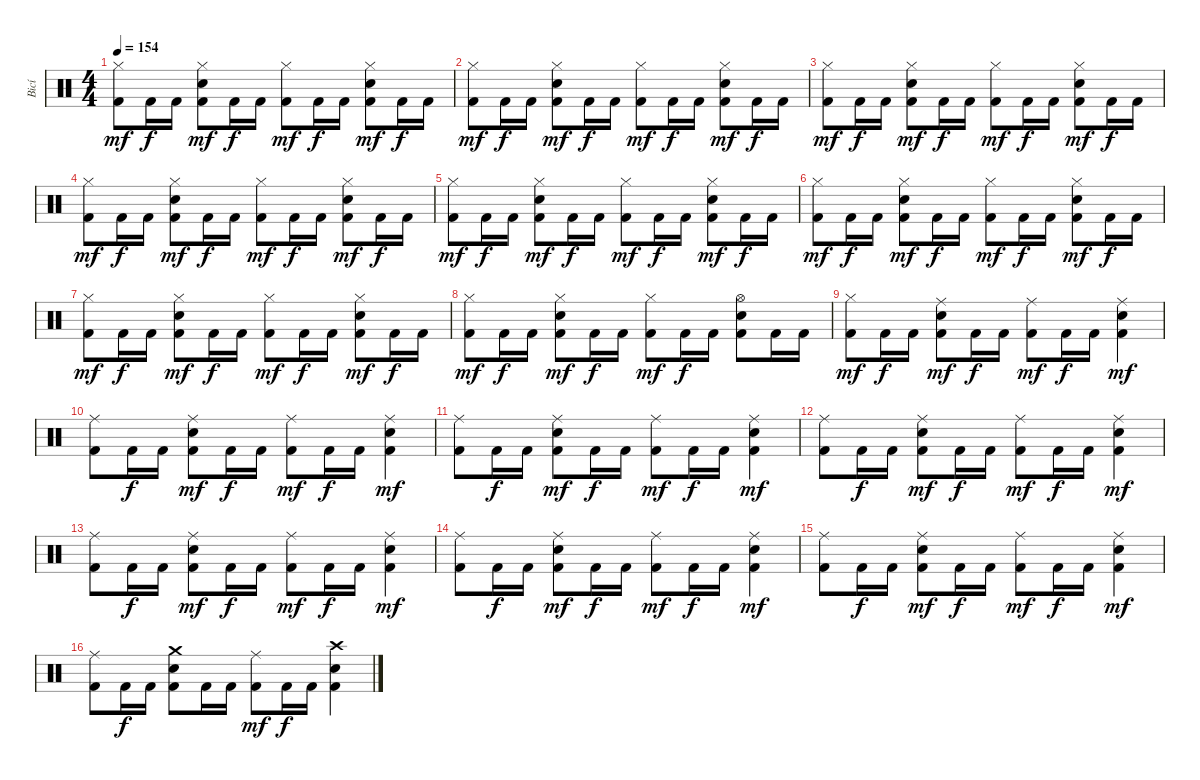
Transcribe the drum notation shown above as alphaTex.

\track ("Bicí" "Bicí") {instrument percussion}
\staff {score}
\articulation defaults
\ts (4 4)
\tempo 154
\clef neutral
\ks c
("Hi-Hat (closed)" "Kick (hit) 2").8{dy mf} "Kick (hit) 2".16{dy f} "Kick (hit) 2".16 ("Hi-Hat (closed)" "Kick (hit) 2" "Electric Snare (hit)").8{dy mf} "Kick (hit) 2".16{dy f} "Kick (hit) 2".16 ("Hi-Hat (closed)" "Kick (hit) 2").8{dy mf} "Kick (hit) 2".16{dy f} "Kick (hit) 2".16 ("Hi-Hat (closed)" "Kick (hit) 2" "Electric Snare (hit)").8{dy mf} "Kick (hit) 2".16{dy f} "Kick (hit) 2".16 |
("Hi-Hat (closed)" "Kick (hit) 2").8{dy mf} "Kick (hit) 2".16{dy f} "Kick (hit) 2".16 ("Hi-Hat (closed)" "Kick (hit) 2" "Electric Snare (hit)").8{dy mf} "Kick (hit) 2".16{dy f} "Kick (hit) 2".16 ("Hi-Hat (closed)" "Kick (hit) 2").8{dy mf} "Kick (hit) 2".16{dy f} "Kick (hit) 2".16 ("Hi-Hat (closed)" "Kick (hit) 2" "Electric Snare (hit)").8{dy mf} "Kick (hit) 2".16{dy f} "Kick (hit) 2".16 |
("Hi-Hat (closed)" "Kick (hit) 2").8{dy mf} "Kick (hit) 2".16{dy f} "Kick (hit) 2".16 ("Hi-Hat (closed)" "Kick (hit) 2" "Electric Snare (hit)").8{dy mf} "Kick (hit) 2".16{dy f} "Kick (hit) 2".16 ("Hi-Hat (closed)" "Kick (hit) 2").8{dy mf} "Kick (hit) 2".16{dy f} "Kick (hit) 2".16 ("Hi-Hat (closed)" "Kick (hit) 2" "Electric Snare (hit)").8{dy mf} "Kick (hit) 2".16{dy f} "Kick (hit) 2".16 |
("Hi-Hat (closed)" "Kick (hit) 2").8{dy mf} "Kick (hit) 2".16{dy f} "Kick (hit) 2".16 ("Hi-Hat (closed)" "Kick (hit) 2" "Electric Snare (hit)").8{dy mf} "Kick (hit) 2".16{dy f} "Kick (hit) 2".16 ("Hi-Hat (closed)" "Kick (hit) 2").8{dy mf} "Kick (hit) 2".16{dy f} "Kick (hit) 2".16 ("Hi-Hat (closed)" "Kick (hit) 2" "Electric Snare (hit)").8{dy mf} "Kick (hit) 2".16{dy f} "Kick (hit) 2".16 |
("Hi-Hat (closed)" "Kick (hit) 2").8{dy mf} "Kick (hit) 2".16{dy f} "Kick (hit) 2".16 ("Hi-Hat (closed)" "Kick (hit) 2" "Electric Snare (hit)").8{dy mf} "Kick (hit) 2".16{dy f} "Kick (hit) 2".16 ("Hi-Hat (closed)" "Kick (hit) 2").8{dy mf} "Kick (hit) 2".16{dy f} "Kick (hit) 2".16 ("Hi-Hat (closed)" "Kick (hit) 2" "Electric Snare (hit)").8{dy mf} "Kick (hit) 2".16{dy f} "Kick (hit) 2".16 |
("Hi-Hat (closed)" "Kick (hit) 2").8{dy mf} "Kick (hit) 2".16{dy f} "Kick (hit) 2".16 ("Hi-Hat (closed)" "Kick (hit) 2" "Electric Snare (hit)").8{dy mf} "Kick (hit) 2".16{dy f} "Kick (hit) 2".16 ("Hi-Hat (closed)" "Kick (hit) 2").8{dy mf} "Kick (hit) 2".16{dy f} "Kick (hit) 2".16 ("Hi-Hat (closed)" "Kick (hit) 2" "Electric Snare (hit)").8{dy mf} "Kick (hit) 2".16{dy f} "Kick (hit) 2".16 |
("Hi-Hat (closed)" "Kick (hit) 2").8{dy mf} "Kick (hit) 2".16{dy f} "Kick (hit) 2".16 ("Hi-Hat (closed)" "Kick (hit) 2" "Electric Snare (hit)").8{dy mf} "Kick (hit) 2".16{dy f} "Kick (hit) 2".16 ("Hi-Hat (closed)" "Kick (hit) 2").8{dy mf} "Kick (hit) 2".16{dy f} "Kick (hit) 2".16 ("Hi-Hat (closed)" "Kick (hit) 2" "Electric Snare (hit)").8{dy mf} "Kick (hit) 2".16{dy f} "Kick (hit) 2".16 |
("Hi-Hat (closed)" "Kick (hit) 2").8{dy mf} "Kick (hit) 2".16{dy f} "Kick (hit) 2".16 ("Hi-Hat (closed)" "Kick (hit) 2" "Electric Snare (hit)").8{dy mf} "Kick (hit) 2".16{dy f} "Kick (hit) 2".16 ("Hi-Hat (closed)" "Kick (hit) 2").8{dy mf} "Kick (hit) 2".16{dy f} "Kick (hit) 2".16 ("Hi-Hat (open)" "Kick (hit) 2" "Electric Snare (hit)").8 "Kick (hit) 2".16 "Kick (hit) 2".16 |
("Hi-Hat (closed)" "Kick (hit) 2").8{dy mf} "Kick (hit) 2".16{dy f} "Kick (hit) 2".16 ("Ride (middle)" "Kick (hit) 2" "Electric Snare (hit)").8{dy mf} "Kick (hit) 2".16{dy f} "Kick (hit) 2".16 ("Ride (middle)" "Kick (hit) 2").8{dy mf} "Kick (hit) 2".16{dy f} "Kick (hit) 2".16 ("Ride (middle)" "Kick (hit) 2" "Electric Snare (hit)").4{dy mf} |
("Ride (middle)" "Kick (hit) 2").8 "Kick (hit) 2".16{dy f} "Kick (hit) 2".16 ("Ride (middle)" "Kick (hit) 2" "Electric Snare (hit)").8{dy mf} "Kick (hit) 2".16{dy f} "Kick (hit) 2".16 ("Ride (middle)" "Kick (hit) 2").8{dy mf} "Kick (hit) 2".16{dy f} "Kick (hit) 2".16 ("Ride (middle)" "Kick (hit) 2" "Electric Snare (hit)").4{dy mf} |
("Ride (middle)" "Kick (hit) 2").8 "Kick (hit) 2".16{dy f} "Kick (hit) 2".16 ("Ride (middle)" "Kick (hit) 2" "Electric Snare (hit)").8{dy mf} "Kick (hit) 2".16{dy f} "Kick (hit) 2".16 ("Ride (middle)" "Kick (hit) 2").8{dy mf} "Kick (hit) 2".16{dy f} "Kick (hit) 2".16 ("Ride (middle)" "Kick (hit) 2" "Electric Snare (hit)").4{dy mf} |
("Ride (middle)" "Kick (hit) 2").8 "Kick (hit) 2".16{dy f} "Kick (hit) 2".16 ("Ride (middle)" "Kick (hit) 2" "Electric Snare (hit)").8{dy mf} "Kick (hit) 2".16{dy f} "Kick (hit) 2".16 ("Ride (middle)" "Kick (hit) 2").8{dy mf} "Kick (hit) 2".16{dy f} "Kick (hit) 2".16 ("Ride (middle)" "Kick (hit) 2" "Electric Snare (hit)").4{dy mf} |
("Ride (middle)" "Kick (hit) 2").8 "Kick (hit) 2".16{dy f} "Kick (hit) 2".16 ("Ride (middle)" "Kick (hit) 2" "Electric Snare (hit)").8{dy mf} "Kick (hit) 2".16{dy f} "Kick (hit) 2".16 ("Ride (middle)" "Kick (hit) 2").8{dy mf} "Kick (hit) 2".16{dy f} "Kick (hit) 2".16 ("Ride (middle)" "Kick (hit) 2" "Electric Snare (hit)").4{dy mf} |
("Ride (middle)" "Kick (hit) 2").8 "Kick (hit) 2".16{dy f} "Kick (hit) 2".16 ("Ride (middle)" "Kick (hit) 2" "Electric Snare (hit)").8{dy mf} "Kick (hit) 2".16{dy f} "Kick (hit) 2".16 ("Ride (middle)" "Kick (hit) 2").8{dy mf} "Kick (hit) 2".16{dy f} "Kick (hit) 2".16 ("Ride (middle)" "Kick (hit) 2" "Electric Snare (hit)").4{dy mf} |
("Ride (middle)" "Kick (hit) 2").8 "Kick (hit) 2".16{dy f} "Kick (hit) 2".16 ("Ride (middle)" "Kick (hit) 2" "Electric Snare (hit)").8{dy mf} "Kick (hit) 2".16{dy f} "Kick (hit) 2".16 ("Ride (middle)" "Kick (hit) 2").8{dy mf} "Kick (hit) 2".16{dy f} "Kick (hit) 2".16 ("Ride (middle)" "Kick (hit) 2" "Electric Snare (hit)").4{dy mf} |
("Ride (middle)" "Kick (hit) 2").8 "Kick (hit) 2".16{dy f} "Kick (hit) 2".16 ("Crash medium (hit)" "Kick (hit) 2" "Electric Snare (hit)").8 "Kick (hit) 2".16 "Kick (hit) 2".16 ("Ride (middle)" "Kick (hit) 2").8{dy mf} "Kick (hit) 2".16{dy f} "Kick (hit) 2".16 ("Crash high (hit)" "Kick (hit) 2" "Electric Snare (hit)").4
